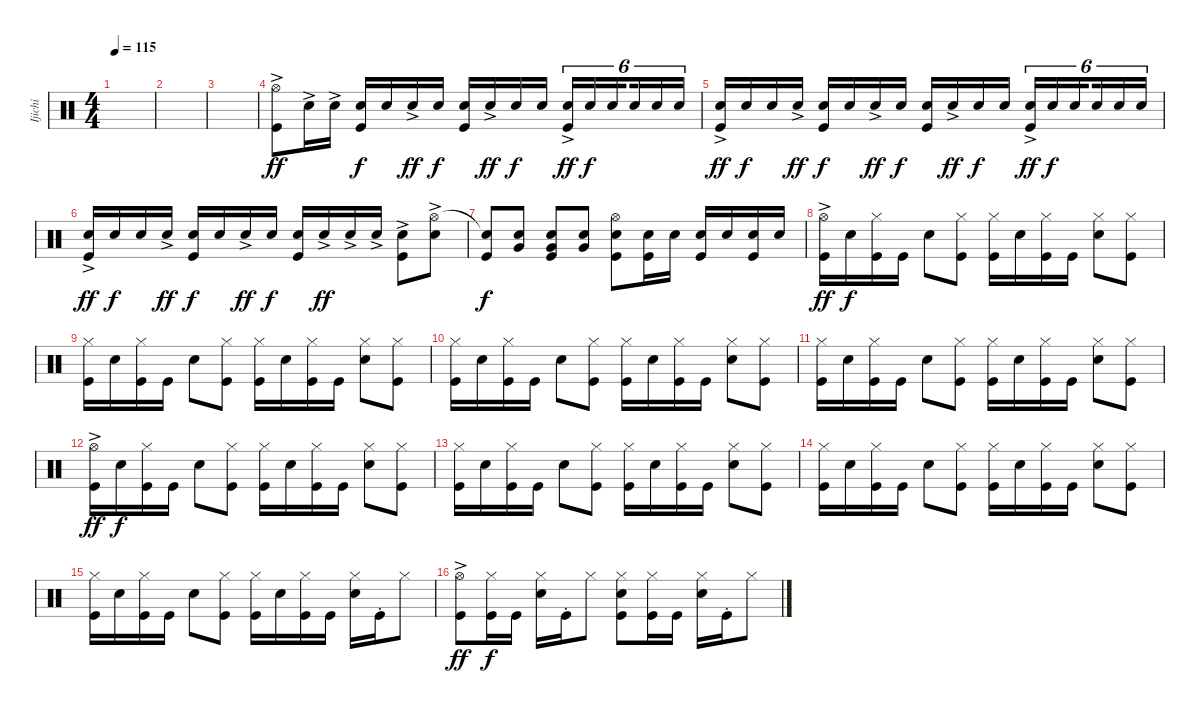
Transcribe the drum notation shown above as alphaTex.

\track ("Ijichi" "Ijichi") {instrument percussion}
\staff {score}
\articulation defaults
\ts (4 4)
\tempo 115
\clef neutral
\ks c
|
|
|
("Hi-Hat (open)"{ac} "Kick (hit)").8{dy ff} "Snare (hit) 2"{ac}.16 "Snare (hit) 2"{ac}.16 ("Snare (hit) 2" "Kick (hit)").16{dy f} "Snare (hit) 2".16 "Snare (hit) 2"{ac}.16{dy ff} "Snare (hit) 2".16{dy f} ("Snare (hit) 2" "Kick (hit)").16 "Snare (hit) 2"{ac}.16{dy ff} "Snare (hit) 2".16{dy f} "Snare (hit) 2".16 ("Snare (hit) 2"{ac} "Kick (hit)").16{tu (6 4) dy ff} "Snare (hit) 2".16{tu (6 4) dy f} "Snare (hit) 2".16{tu (6 4) beam splitsecondary} "Snare (hit) 2".16{tu (6 4)} "Snare (hit) 2".16{tu (6 4)} "Snare (hit) 2".16{tu (6 4)} |
("Snare (hit) 2"{ac} "Kick (hit)").16{dy ff} "Snare (hit) 2".16{dy f} "Snare (hit) 2".16 "Snare (hit) 2"{ac}.16{dy ff} ("Snare (hit) 2" "Kick (hit)").16{dy f} "Snare (hit) 2".16 "Snare (hit) 2"{ac}.16{dy ff} "Snare (hit) 2".16{dy f} ("Snare (hit) 2" "Kick (hit)").16 "Snare (hit) 2"{ac}.16{dy ff} "Snare (hit) 2".16{dy f} "Snare (hit) 2".16 ("Snare (hit) 2"{ac} "Kick (hit)").16{tu (6 4) dy ff} "Snare (hit) 2".16{tu (6 4) dy f} "Snare (hit) 2".16{tu (6 4) beam splitsecondary} "Snare (hit) 2".16{tu (6 4)} "Snare (hit) 2".16{tu (6 4)} "Snare (hit) 2".16{tu (6 4)} |
("Snare (hit) 2"{ac} "Kick (hit)").16{dy ff} "Snare (hit) 2".16{dy f} "Snare (hit) 2".16 "Snare (hit) 2"{ac}.16{dy ff} ("Snare (hit) 2" "Kick (hit)").16{dy f} "Snare (hit) 2".16 "Snare (hit) 2"{ac}.16{dy ff} "Snare (hit) 2".16{dy f} ("Snare (hit) 2" "Kick (hit)").16 "Snare (hit) 2"{ac}.16{dy ff} "Snare (hit) 2"{ac}.16 "Snare (hit) 2"{ac}.16 ("Snare (hit) 2"{ac} "Kick (hit)").8 ("Hi-Hat (open)"{ac} "Snare (hit) 2").8 |
("Snare (hit)"{t} "Kick (hit)").8{dy f} ("Snare (hit) 2" "Very Low Tom (hit)").8 ("Snare (hit) 2" "Very Low Tom (hit)" "Kick (hit)").8 ("Snare (hit) 2" "Very Low Tom (hit)").8 ("Hi-Hat (open)" "Snare (hit) 2" "Kick (hit)").8 ("Snare (hit) 2" "Kick (hit)").16 "Snare (hit) 2".16 ("Snare (hit) 2" "Kick (hit)").16 "Snare (hit) 2".16 ("Snare (hit) 2" "Kick (hit)").16 "Snare (hit) 2".16 |
("Hi-Hat (open)"{ac} "Kick (hit)").16{dy ff} "Snare (hit) 2".16{dy f} ("Hi-Hat (closed)" "Kick (hit)").16 "Kick (hit)".16 "Snare (hit) 2".8 ("Hi-Hat (closed)" "Kick (hit)").8 ("Hi-Hat (closed)" "Kick (hit)").16 "Snare (hit) 2".16 ("Hi-Hat (closed)" "Kick (hit)").16 "Kick (hit)".16 ("Hi-Hat (closed)" "Snare (hit) 2").8 ("Hi-Hat (closed)" "Kick (hit)").8 |
("Hi-Hat (closed)" "Kick (hit)").16 "Snare (hit) 2".16 ("Hi-Hat (closed)" "Kick (hit)").16 "Kick (hit)".16 "Snare (hit) 2".8 ("Hi-Hat (closed)" "Kick (hit)").8 ("Hi-Hat (closed)" "Kick (hit)").16 "Snare (hit) 2".16 ("Hi-Hat (closed)" "Kick (hit)").16 "Kick (hit)".16 ("Hi-Hat (closed)" "Snare (hit) 2").8 ("Hi-Hat (closed)" "Kick (hit)").8 |
("Hi-Hat (closed)" "Kick (hit)").16 "Snare (hit) 2".16 ("Hi-Hat (closed)" "Kick (hit)").16 "Kick (hit)".16 "Snare (hit) 2".8 ("Hi-Hat (closed)" "Kick (hit)").8 ("Hi-Hat (closed)" "Kick (hit)").16 "Snare (hit) 2".16 ("Hi-Hat (closed)" "Kick (hit)").16 "Kick (hit)".16 ("Hi-Hat (closed)" "Snare (hit) 2").8 ("Hi-Hat (closed)" "Kick (hit)").8 |
("Hi-Hat (closed)" "Kick (hit)").16 "Snare (hit) 2".16 ("Hi-Hat (closed)" "Kick (hit)").16 "Kick (hit)".16 "Snare (hit) 2".8 ("Hi-Hat (closed)" "Kick (hit)").8 ("Hi-Hat (closed)" "Kick (hit)").16 "Snare (hit) 2".16 ("Hi-Hat (closed)" "Kick (hit)").16 "Kick (hit)".16 ("Hi-Hat (closed)" "Snare (hit) 2").8 ("Hi-Hat (closed)" "Kick (hit)").8 |
("Hi-Hat (open)"{ac} "Kick (hit)").16{dy ff} "Snare (hit) 2".16{dy f} ("Hi-Hat (closed)" "Kick (hit)").16 "Kick (hit)".16 "Snare (hit) 2".8 ("Hi-Hat (closed)" "Kick (hit)").8 ("Hi-Hat (closed)" "Kick (hit)").16 "Snare (hit) 2".16 ("Hi-Hat (closed)" "Kick (hit)").16 "Kick (hit)".16 ("Hi-Hat (closed)" "Snare (hit) 2").8 ("Hi-Hat (closed)" "Kick (hit)").8 |
("Hi-Hat (closed)" "Kick (hit)").16 "Snare (hit) 2".16 ("Hi-Hat (closed)" "Kick (hit)").16 "Kick (hit)".16 "Snare (hit) 2".8 ("Hi-Hat (closed)" "Kick (hit)").8 ("Hi-Hat (closed)" "Kick (hit)").16 "Snare (hit) 2".16 ("Hi-Hat (closed)" "Kick (hit)").16 "Kick (hit)".16 ("Hi-Hat (closed)" "Snare (hit) 2").8 ("Hi-Hat (closed)" "Kick (hit)").8 |
("Hi-Hat (closed)" "Kick (hit)").16 "Snare (hit) 2".16 ("Hi-Hat (closed)" "Kick (hit)").16 "Kick (hit)".16 "Snare (hit) 2".8 ("Hi-Hat (closed)" "Kick (hit)").8 ("Hi-Hat (closed)" "Kick (hit)").16 "Snare (hit) 2".16 ("Hi-Hat (closed)" "Kick (hit)").16 "Kick (hit)".16 ("Hi-Hat (closed)" "Snare (hit) 2").8 ("Hi-Hat (closed)" "Kick (hit)").8 |
("Hi-Hat (closed)" "Kick (hit)").16 "Snare (hit) 2".16 ("Hi-Hat (closed)" "Kick (hit)").16 "Kick (hit)".16 "Snare (hit) 2".8 ("Hi-Hat (closed)" "Kick (hit)").8 ("Hi-Hat (closed)" "Kick (hit)").16 "Snare (hit) 2".16 ("Hi-Hat (closed)" "Kick (hit)").16 "Kick (hit)".16 ("Hi-Hat (closed)" "Snare (hit) 2").16 "Kick (hit)"{st}.16 "Hi-Hat (closed)".8 |
("Hi-Hat (open)"{ac} "Kick (hit)").8{dy ff} ("Hi-Hat (closed)" "Kick (hit)").16{dy f} "Kick (hit)".16 ("Hi-Hat (closed)" "Snare (hit) 2").16 "Kick (hit)"{st}.16 "Hi-Hat (closed)".8 ("Hi-Hat (closed)" "Snare (hit) 2" "Kick (hit)").8 ("Hi-Hat (closed)" "Kick (hit)").16 "Kick (hit)".16 ("Hi-Hat (closed)" "Snare (hit) 2").16 "Kick (hit)"{st}.16 "Hi-Hat (closed)".8
